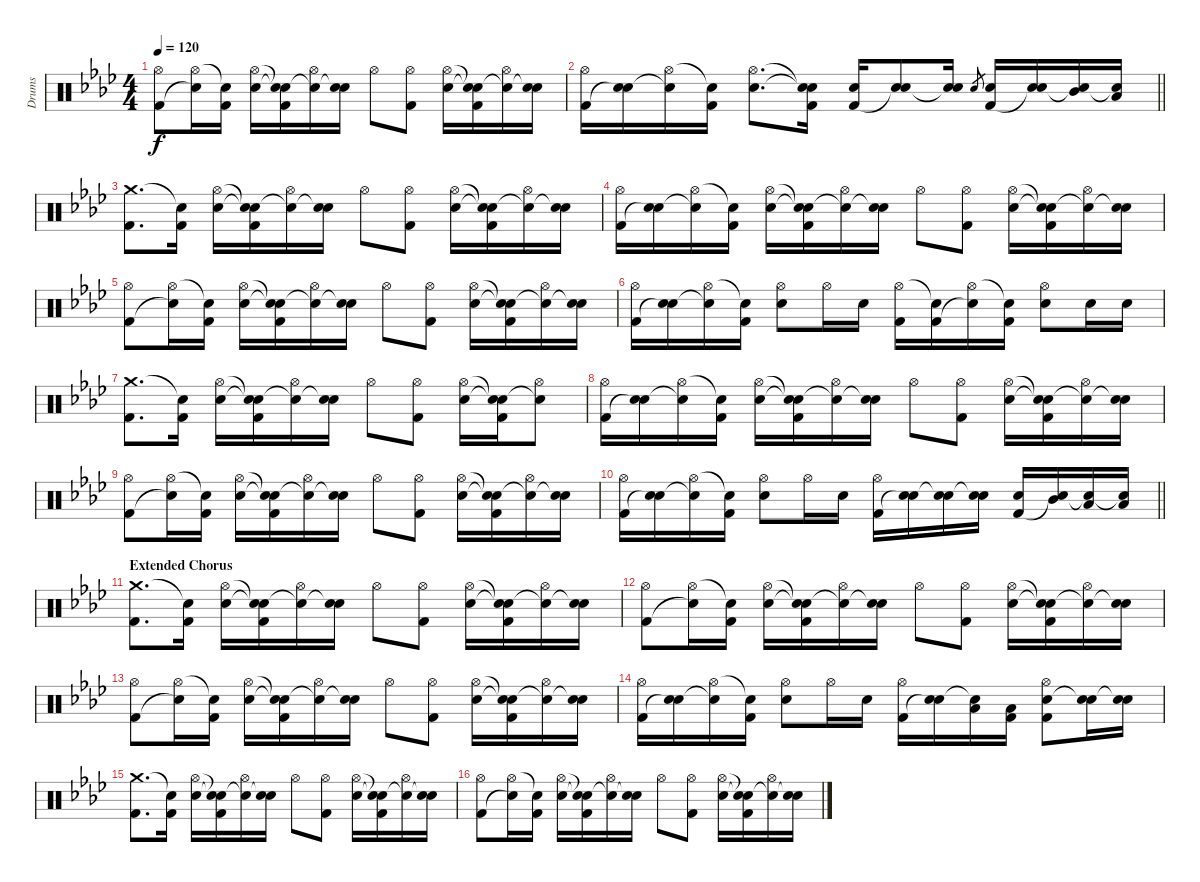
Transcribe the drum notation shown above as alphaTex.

\track ("Drums" "Drums") {instrument percussion}
\staff {score}
\articulation defaults
\ts (4 4)
\tempo 120
\clef neutral
\ks fminor
("Hi-Hat (open)" "Kick (hit) 2").8{dy f} ("Hi-Hat (open)" "Snare (hit)"{t}).16 ("Snare (hit)"{t} "Kick (hit) 2").16 ("Hi-Hat (open)" "Electric Snare (hit)").16 ("Snare (hit)"{t} "Snare (hit)"{t} "Kick (hit) 2").16 ("Hi-Hat (open)" "Snare (hit)"{t}).16 ("Electric Snare (hit)" "Snare (hit)"{t}).16 "Hi-Hat (open)".8 ("Hi-Hat (open)" "Kick (hit) 2").8 ("Hi-Hat (open)" "Electric Snare (hit)").16 ("Snare (hit)"{t} "Snare (hit)"{t} "Kick (hit) 2").16 ("Hi-Hat (open)" "Snare (hit)"{t}).16 ("Electric Snare (hit)" "Snare (hit)"{t}).16 |
\barLineRight lightlight
("Hi-Hat (open)" "Kick (hit) 2").16 ("Electric Snare (hit)" "Snare (hit)"{t}).16 ("Hi-Hat (open)" "Snare (hit)"{t}).16 ("Snare (hit)"{t} "Kick (hit) 2").16 ("Hi-Hat (open)" "Electric Snare (hit)").8{d} ("Snare (hit)"{t} "Snare (hit)"{t} "Kick (hit) 2").16 ("Electric Snare (hit)" "Kick (hit) 2").16 ("Electric Snare (hit)" "Snare (hit)"{t}).8 ("Electric Snare (hit)" "Snare (hit)"{t}).16 "Electric Snare (hit)".8{gr} ("Electric Snare (hit)" "Kick (hit) 2").16 ("Electric Snare (hit)" "Snare (hit)"{t}).16 ("Mid Tom (hit)" "Snare (hit)"{t}).16 ("Low Floor Tom (hit)" "Snare (hit)"{t}).16 |
("Crash medium (hit)" "Kick (hit) 2").8{d} ("Snare (hit)"{t} "Kick (hit) 2").16 ("Hi-Hat (open)" "Electric Snare (hit)").16 ("Snare (hit)"{t} "Snare (hit)"{t} "Kick (hit) 2").16 ("Hi-Hat (open)" "Snare (hit)"{t}).16 ("Electric Snare (hit)" "Snare (hit)"{t}).16 "Hi-Hat (open)".8 ("Hi-Hat (open)" "Kick (hit) 2").8 ("Hi-Hat (open)" "Electric Snare (hit)").16 ("Snare (hit)"{t} "Snare (hit)"{t} "Kick (hit) 2").16 ("Hi-Hat (open)" "Snare (hit)"{t}).16 ("Electric Snare (hit)" "Snare (hit)"{t}).16 |
("Hi-Hat (open)" "Kick (hit) 2").16 ("Electric Snare (hit)" "Snare (hit)"{t}).16 ("Hi-Hat (open)" "Snare (hit)"{t}).16 ("Snare (hit)"{t} "Kick (hit) 2").16 ("Hi-Hat (open)" "Electric Snare (hit)").16 ("Snare (hit)"{t} "Snare (hit)"{t} "Kick (hit) 2").16 ("Hi-Hat (open)" "Snare (hit)"{t}).16 ("Electric Snare (hit)" "Snare (hit)"{t}).16 "Hi-Hat (open)".8 ("Hi-Hat (open)" "Kick (hit) 2").8 ("Hi-Hat (open)" "Electric Snare (hit)").16 ("Snare (hit)"{t} "Snare (hit)"{t} "Kick (hit) 2").16 ("Hi-Hat (open)" "Snare (hit)"{t}).16 ("Electric Snare (hit)" "Snare (hit)"{t}).16 |
("Hi-Hat (open)" "Kick (hit) 2").8 ("Hi-Hat (open)" "Snare (hit)"{t}).16 ("Snare (hit)"{t} "Kick (hit) 2").16 ("Hi-Hat (open)" "Electric Snare (hit)").16 ("Snare (hit)"{t} "Snare (hit)"{t} "Kick (hit) 2").16 ("Hi-Hat (open)" "Snare (hit)"{t}).16 ("Electric Snare (hit)" "Snare (hit)"{t}).16 "Hi-Hat (open)".8 ("Hi-Hat (open)" "Kick (hit) 2").8 ("Hi-Hat (open)" "Electric Snare (hit)").16 ("Snare (hit)"{t} "Snare (hit)"{t} "Kick (hit) 2").16 ("Hi-Hat (open)" "Snare (hit)"{t}).16 ("Electric Snare (hit)" "Snare (hit)"{t}).16 |
("Hi-Hat (open)" "Kick (hit) 2").16 ("Electric Snare (hit)" "Snare (hit)"{t}).16 ("Hi-Hat (open)" "Snare (hit)"{t}).16 ("Snare (hit)"{t} "Kick (hit) 2").16 ("Hi-Hat (open)" "Electric Snare (hit)").8 "Hi-Hat (open)".16 "Electric Snare (hit)".16 ("Hi-Hat (open)" "Kick (hit) 2").16 ("Snare (hit)"{t} "Kick (hit) 2").16 ("Hi-Hat (open)" "Snare (hit)"{t}).16 ("Snare (hit)"{t} "Kick (hit) 2").16 ("Hi-Hat (open)" "Electric Snare (hit)").8 "Electric Snare (hit)".16 "Electric Snare (hit)".16 |
("Crash medium (hit)" "Kick (hit) 2").8{d} ("Snare (hit)"{t} "Kick (hit) 2").16 ("Hi-Hat (open)" "Electric Snare (hit)").16 ("Snare (hit)"{t} "Snare (hit)"{t} "Kick (hit) 2").16 ("Hi-Hat (open)" "Snare (hit)"{t}).16 ("Electric Snare (hit)" "Snare (hit)"{t}).16 "Hi-Hat (open)".8 ("Hi-Hat (open)" "Kick (hit) 2").8 ("Hi-Hat (open)" "Electric Snare (hit)").16 ("Snare (hit)"{t} "Snare (hit)"{t} "Kick (hit) 2").16 ("Hi-Hat (open)" "Snare (hit)"{t}).8 |
("Hi-Hat (open)" "Kick (hit) 2").16 ("Electric Snare (hit)" "Snare (hit)"{t}).16 ("Hi-Hat (open)" "Snare (hit)"{t}).16 ("Snare (hit)"{t} "Kick (hit) 2").16 ("Hi-Hat (open)" "Electric Snare (hit)").16 ("Snare (hit)"{t} "Snare (hit)"{t} "Kick (hit) 2").16 ("Hi-Hat (open)" "Snare (hit)"{t}).16 ("Electric Snare (hit)" "Snare (hit)"{t}).16 "Hi-Hat (open)".8 ("Hi-Hat (open)" "Kick (hit) 2").8 ("Hi-Hat (open)" "Electric Snare (hit)").16 ("Snare (hit)"{t} "Snare (hit)"{t} "Kick (hit) 2").16 ("Hi-Hat (open)" "Snare (hit)"{t}).16 ("Electric Snare (hit)" "Snare (hit)"{t}).16 |
("Hi-Hat (open)" "Kick (hit) 2").8 ("Hi-Hat (open)" "Snare (hit)"{t}).16 ("Snare (hit)"{t} "Kick (hit) 2").16 ("Hi-Hat (open)" "Electric Snare (hit)").16 ("Snare (hit)"{t} "Snare (hit)"{t} "Kick (hit) 2").16 ("Hi-Hat (open)" "Snare (hit)"{t}).16 ("Electric Snare (hit)" "Snare (hit)"{t}).16 "Hi-Hat (open)".8 ("Hi-Hat (open)" "Kick (hit) 2").8 ("Hi-Hat (open)" "Electric Snare (hit)").16 ("Snare (hit)"{t} "Snare (hit)"{t} "Kick (hit) 2").16 ("Hi-Hat (open)" "Snare (hit)"{t}).16 ("Electric Snare (hit)" "Snare (hit)"{t}).16 |
\barLineRight lightlight
("Hi-Hat (open)" "Kick (hit) 2").16 ("Electric Snare (hit)" "Snare (hit)"{t}).16 ("Hi-Hat (open)" "Snare (hit)"{t}).16 ("Snare (hit)"{t} "Kick (hit) 2").16 ("Hi-Hat (open)" "Electric Snare (hit)").8 "Hi-Hat (open)".16 "Electric Snare (hit)".16 ("Hi-Hat (open)" "Kick (hit) 2").16 ("Electric Snare (hit)" "Snare (hit)"{t}).16 ("Electric Snare (hit)" "Snare (hit)"{t}).16 ("Electric Snare (hit)" "Snare (hit)"{t}).16 ("Electric Snare (hit)" "Kick (hit) 2").16 ("Mid Tom (hit)" "Snare (hit)"{t}).16 ("Low Tom (hit)" "Snare (hit)"{t}).16 ("Low Floor Tom (hit)" "Snare (hit)"{t}).16 |
\section ("" "Extended Chorus")
("Crash medium (hit)" "Kick (hit) 2").8{d} ("Snare (hit)"{t} "Kick (hit) 2").16 ("Hi-Hat (open)" "Electric Snare (hit)").16 ("Snare (hit)"{t} "Snare (hit)"{t} "Kick (hit) 2").16 ("Hi-Hat (open)" "Snare (hit)"{t}).16 ("Electric Snare (hit)" "Snare (hit)"{t}).16 "Hi-Hat (open)".8 ("Hi-Hat (open)" "Kick (hit) 2").8 ("Hi-Hat (open)" "Electric Snare (hit)").16 ("Snare (hit)"{t} "Snare (hit)"{t} "Kick (hit) 2").16 ("Hi-Hat (open)" "Snare (hit)"{t}).16 ("Electric Snare (hit)" "Snare (hit)"{t}).16 |
("Hi-Hat (open)" "Kick (hit) 2").8 ("Hi-Hat (open)" "Snare (hit)"{t}).16 ("Snare (hit)"{t} "Kick (hit) 2").16 ("Hi-Hat (open)" "Electric Snare (hit)").16 ("Snare (hit)"{t} "Snare (hit)"{t} "Kick (hit) 2").16 ("Hi-Hat (open)" "Snare (hit)"{t}).16 ("Electric Snare (hit)" "Snare (hit)"{t}).16 "Hi-Hat (open)".8 ("Hi-Hat (open)" "Kick (hit) 2").8 ("Hi-Hat (open)" "Electric Snare (hit)").16 ("Snare (hit)"{t} "Snare (hit)"{t} "Kick (hit) 2").16 ("Hi-Hat (open)" "Snare (hit)"{t}).16 ("Electric Snare (hit)" "Snare (hit)"{t}).16 |
("Hi-Hat (open)" "Kick (hit) 2").8 ("Hi-Hat (open)" "Snare (hit)"{t}).16 ("Snare (hit)"{t} "Kick (hit) 2").16 ("Hi-Hat (open)" "Electric Snare (hit)").16 ("Snare (hit)"{t} "Snare (hit)"{t} "Kick (hit) 2").16 ("Hi-Hat (open)" "Snare (hit)"{t}).16 ("Electric Snare (hit)" "Snare (hit)"{t}).16 "Hi-Hat (open)".8 ("Hi-Hat (open)" "Kick (hit) 2").8 ("Hi-Hat (open)" "Electric Snare (hit)").16 ("Snare (hit)"{t} "Snare (hit)"{t} "Kick (hit) 2").16 ("Hi-Hat (open)" "Snare (hit)"{t}).16 ("Electric Snare (hit)" "Snare (hit)"{t}).16 |
("Hi-Hat (open)" "Kick (hit) 2").16 ("Electric Snare (hit)" "Snare (hit)"{t}).16 ("Hi-Hat (open)" "Snare (hit)"{t}).16 ("Snare (hit)"{t} "Kick (hit) 2").16 ("Hi-Hat (open)" "Electric Snare (hit)").8 "Hi-Hat (open)".16 "Electric Snare (hit)".16 ("Hi-Hat (open)" "Kick (hit) 2").16 ("Electric Snare (hit)" "Snare (hit)"{t}).16 ("Low Tom (hit)" "Snare (hit)"{t}).16 ("Low Floor Tom (hit)" "Kick (hit) 2").16 ("Hi-Hat (open)" "Electric Snare (hit)" "Kick (hit) 2").8 ("Electric Snare (hit)" "Snare (hit)"{t}).16 ("Electric Snare (hit)" "Snare (hit)"{t}).16 |
("Crash medium (hit)" "Kick (hit) 2").8{d} ("Snare (hit)"{t} "Kick (hit) 2").16 ("Hi-Hat (open)" "Electric Snare (hit)").16 ("Snare (hit)"{t} "Snare (hit)"{t} "Kick (hit) 2").16 ("Hi-Hat (open)" "Snare (hit)"{t}).16 ("Electric Snare (hit)" "Snare (hit)"{t}).16 "Hi-Hat (open)".8 ("Hi-Hat (open)" "Kick (hit) 2").8 ("Hi-Hat (open)" "Electric Snare (hit)").16 ("Snare (hit)"{t} "Snare (hit)"{t} "Kick (hit) 2").16 ("Hi-Hat (open)" "Snare (hit)"{t}).16 ("Electric Snare (hit)" "Snare (hit)"{t}).16 |
("Hi-Hat (open)" "Kick (hit) 2").8 ("Hi-Hat (open)" "Snare (hit)"{t}).16 ("Snare (hit)"{t} "Kick (hit) 2").16 ("Hi-Hat (open)" "Electric Snare (hit)").16 ("Snare (hit)"{t} "Snare (hit)"{t} "Kick (hit) 2").16 ("Hi-Hat (open)" "Snare (hit)"{t}).16 ("Electric Snare (hit)" "Snare (hit)"{t}).16 "Hi-Hat (open)".8 ("Hi-Hat (open)" "Kick (hit) 2").8 ("Hi-Hat (open)" "Electric Snare (hit)").16 ("Snare (hit)"{t} "Snare (hit)"{t} "Kick (hit) 2").16 ("Hi-Hat (open)" "Snare (hit)"{t}).16 ("Electric Snare (hit)" "Snare (hit)"{t}).16
